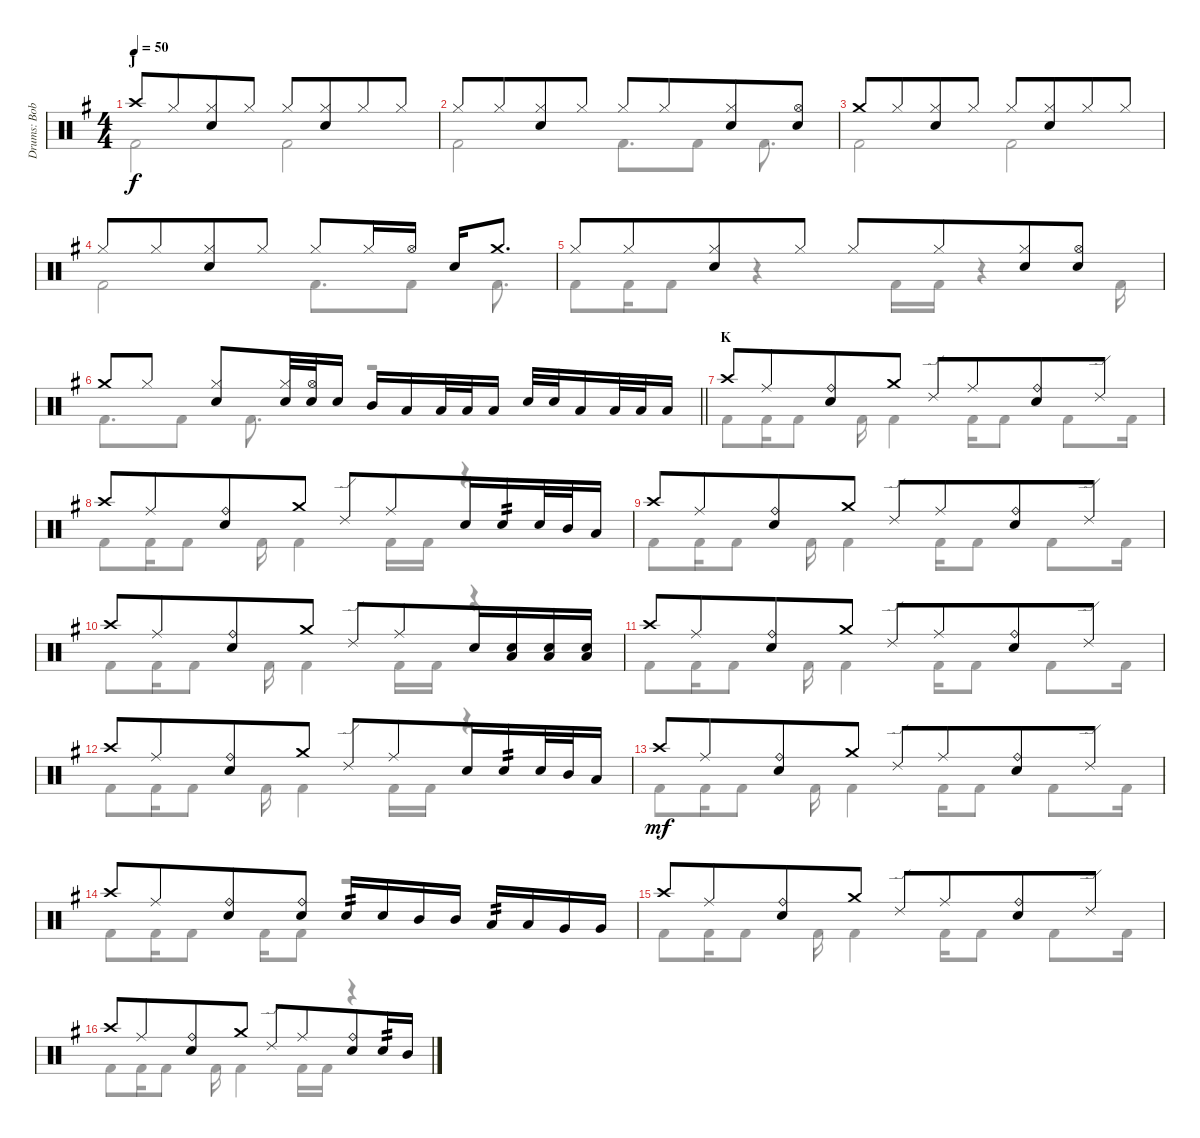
\track ("Drums: Bobby" "Drums: Bob") {instrument percussion}
\staff {score}
\articulation defaults
\voice
\ts (4 4)
\section ("" "J")
\tempo 50
\clef neutral
\ks g "Crash high (hit)".8{dy f} "Hi-Hat (closed)".8{beam merge}
("Hi-Hat (closed)" "Snare (hit) 2").8 "Hi-Hat (closed)".8 "Hi-Hat (closed)".8 ("Hi-Hat (closed)" "Snare (hit) 2").8{beam merge} "Hi-Hat (closed)".8 "Hi-Hat (closed)".8 |
"Hi-Hat (closed)".8 "Hi-Hat (closed)".8{beam merge} ("Hi-Hat (closed)" "Snare (hit) 2").8 "Hi-Hat (closed)".8 "Hi-Hat (closed)".8 "Hi-Hat (closed)".8{beam merge} ("Hi-Hat (closed)" "Snare (hit) 2").8 ("Hi-Hat (open)" "Snare (hit) 2").8 |
"Crash medium (hit)".8 "Hi-Hat (closed)".8{beam merge} ("Hi-Hat (closed)" "Snare (hit) 2").8 "Hi-Hat (closed)".8 "Hi-Hat (closed)".8 ("Hi-Hat (closed)" "Snare (hit) 2").8{beam merge} "Hi-Hat (closed)".8 "Hi-Hat (closed)".8 |
"Hi-Hat (closed)".8 "Hi-Hat (closed)".8{beam merge} ("Hi-Hat (closed)" "Snare (hit) 2").8 "Hi-Hat (closed)".8 "Hi-Hat (closed)".8 "Hi-Hat (closed)".16{beam merge} "Hi-Hat (open)".16 "Snare (hit) 2".16 "Crash medium (hit)".8{d} |
"Hi-Hat (closed)".8 "Hi-Hat (closed)".8{beam merge} ("Hi-Hat (closed)" "Snare (hit) 2").8 "Hi-Hat (closed)".8 "Hi-Hat (closed)".8 "Hi-Hat (closed)".8{beam merge} ("Hi-Hat (closed)" "Snare (hit) 2").8 ("Hi-Hat (open)" "Snare (hit) 2").8 |
\barLineRight lightlight "Crash medium (hit)".8 "Hi-Hat (closed)".8
("Hi-Hat (closed)" "Snare (hit) 2").8 ("Hi-Hat (closed)" "Snare (hit) 2").32 ("Hi-Hat (open)" "Snare (hit) 2").32 "Snare (hit) 2".16 "Mid Tom (hit)".16 "Low Tom (hit)".16 "Low Tom (hit)".32 "Low Tom (hit)".32 "Low Tom (hit)".16 "Electric Snare (hit)".32 "Electric Snare (hit)".32 "Low Tom (hit)".16 "Low Tom (hit)".32 "Low Tom (hit)".32 "Low Tom (hit)".16 |
\section ("" "K")
"Crash high (hit)".8 "Ride (middle)".8{beam merge} ("Ride (bell)" "Snare (hit) 2").8 "Crash medium (hit)".8 "Ride (edge) 2".8 "Ride (middle)".8{beam merge} ("Ride (bell)" "Snare (hit) 2").8 "Ride (edge) 2".8 |
"Crash high (hit)".8 "Ride (middle)".8{beam merge} ("Ride (bell)" "Snare (hit) 2").8 "Crash medium (hit)".8 "Ride (edge) 2".8 "Ride (middle)".8{beam merge} "Snare (hit) 2".16 "Electric Snare (hit)".16{tp 2} "Electric Snare (hit)".32 "Mid Tom (hit)".32 "Low Tom (hit)".16 |
"Crash high (hit)".8 "Ride (middle)".8{beam merge} ("Ride (bell)" "Snare (hit) 2").8 "Crash medium (hit)".8 "Ride (edge) 2".8 "Ride (middle)".8{beam merge} ("Ride (bell)" "Snare (hit) 2").8 "Ride (edge) 2".8 |
"Crash high (hit)".8 "Ride (middle)".8{beam merge} ("Ride (bell)" "Snare (hit) 2").8 "Crash medium (hit)".8 "Ride (edge) 2".8 "Ride (middle)".8{beam merge} "Electric Snare (hit)".16 ("Electric Snare (hit)" "Low Tom (hit)").16 ("Electric Snare (hit)" "Low Tom (hit)").16 ("Electric Snare (hit)" "Low Tom (hit)").16 |
"Crash high (hit)".8 "Ride (middle)".8{beam merge} ("Ride (bell)" "Snare (hit) 2").8 "Crash medium (hit)".8 "Ride (edge) 2".8 "Ride (middle)".8{beam merge} ("Ride (bell)" "Snare (hit) 2").8 "Ride (edge) 2".8 |
"Crash high (hit)".8 "Ride (middle)".8{beam merge} ("Ride (bell)" "Snare (hit) 2").8 "Crash medium (hit)".8 "Ride (edge) 2".8 "Ride (middle)".8{beam merge} "Snare (hit) 2".16 "Electric Snare (hit)".16{tp 2} "Electric Snare (hit)".32 "Mid Tom (hit)".32 "Low Tom (hit)".16 |
"Crash high (hit)".8{dy mf volume 7} "Ride (middle)".8{beam merge} ("Ride (bell)" "Snare (hit) 2").8 "Crash medium (hit)".8 "Ride (edge) 2".8 "Ride (middle)".8{beam merge} ("Ride (bell)" "Snare (hit) 2").8 "Ride (edge) 2".8 |
"Crash high (hit)".8 "Ride (middle)".8{beam merge} ("Ride (bell)" "Snare (hit) 2").8 ("Ride (bell)" "Snare (hit) 2").8 "Electric Snare (hit)".16{tp 2} "Electric Snare (hit)".16{beam merge} "Mid Tom (hit)".16 "Mid Tom (hit)".16 "Low Tom (hit)".16{tp 2} "Low Tom (hit)".16 "Very Low Tom (hit)".16 "Very Low Tom (hit)".16 |
"Crash high (hit)".8 "Ride (middle)".8{beam merge} ("Ride (bell)" "Snare (hit) 2").8 "Crash medium (hit)".8 "Ride (edge) 2".8 "Ride (middle)".8{beam merge} ("Ride (bell)" "Snare (hit) 2").8 "Ride (edge) 2".8 |
"Crash high (hit)".8 "Ride (middle)".8{beam merge} ("Ride (bell)" "Snare (hit) 2").8 "Crash medium (hit)".8 "Ride (edge) 2".8 "Ride (middle)".8{beam merge} ("Ride (bell)" "Snare (hit) 2").8 "Electric Snare (hit)".16{tp 2} "Mid Tom (hit)".16
\voice
\clef neutral
\ottava regular
\simile none
\ks g "Kick (hit) 2".2{dy f} "Kick (hit) 2".2
|
"Kick (hit) 2".2 "Kick (hit) 2".8{d} "Kick (hit) 2".8 "Kick (hit) 2".8{d} |
"Kick (hit) 2".2 "Kick (hit) 2".2 |
"Kick (hit) 2".2 "Kick (hit) 2".8{d} "Kick (hit) 2".8 "Kick (hit) 2".8{d} |
"Kick (hit) 2".8 "Kick (hit) 2".16 "Kick (hit) 2".8 r.4 "Kick (hit) 2".16 "Kick (hit) 2".16 r.4 "Kick (hit) 2".16 |
\barLineRight lightlight "Kick (hit) 2".8{d} "Kick (hit) 2".8 "Kick (hit) 2".8{d}
r.2 |
"Kick (hit) 2".8 "Kick (hit) 2".16 "Kick (hit) 2".8 "Kick (hit) 2".16 "Kick (hit) 2".4 "Kick (hit) 2".16 "Kick (hit) 2".8 "Kick (hit) 2".8 "Kick (hit) 2".16 |
"Kick (hit) 2".8 "Kick (hit) 2".16 "Kick (hit) 2".8 "Kick (hit) 2".16 "Kick (hit) 2".4 "Kick (hit) 2".16 "Kick (hit) 2".16 r.4 |
"Kick (hit) 2".8 "Kick (hit) 2".16 "Kick (hit) 2".8 "Kick (hit) 2".16 "Kick (hit) 2".4 "Kick (hit) 2".16 "Kick (hit) 2".8 "Kick (hit) 2".8 "Kick (hit) 2".16 |
"Kick (hit) 2".8 "Kick (hit) 2".16 "Kick (hit) 2".8 "Kick (hit) 2".16 "Kick (hit) 2".4 "Kick (hit) 2".16 "Kick (hit) 2".16 r.4 |
"Kick (hit) 2".8 "Kick (hit) 2".16 "Kick (hit) 2".8 "Kick (hit) 2".16 "Kick (hit) 2".4 "Kick (hit) 2".16 "Kick (hit) 2".8 "Kick (hit) 2".8 "Kick (hit) 2".16 |
"Kick (hit) 2".8 "Kick (hit) 2".16 "Kick (hit) 2".8 "Kick (hit) 2".16 "Kick (hit) 2".4 "Kick (hit) 2".16 "Kick (hit) 2".16 r.4 |
"Kick (hit) 2".8 "Kick (hit) 2".16 "Kick (hit) 2".8 "Kick (hit) 2".16 "Kick (hit) 2".4 "Kick (hit) 2".16 "Kick (hit) 2".8 "Kick (hit) 2".8 "Kick (hit) 2".16 |
"Kick (hit) 2".8 "Kick (hit) 2".16 "Kick (hit) 2".8 "Kick (hit) 2".16 "Kick (hit) 2".8 r.2 |
"Kick (hit) 2".8 "Kick (hit) 2".16 "Kick (hit) 2".8 "Kick (hit) 2".16 "Kick (hit) 2".4 "Kick (hit) 2".16 "Kick (hit) 2".8 "Kick (hit) 2".8 "Kick (hit) 2".16 |
"Kick (hit) 2".8 "Kick (hit) 2".16 "Kick (hit) 2".8 "Kick (hit) 2".16 "Kick (hit) 2".4 "Kick (hit) 2".16 "Kick (hit) 2".16 r.4
